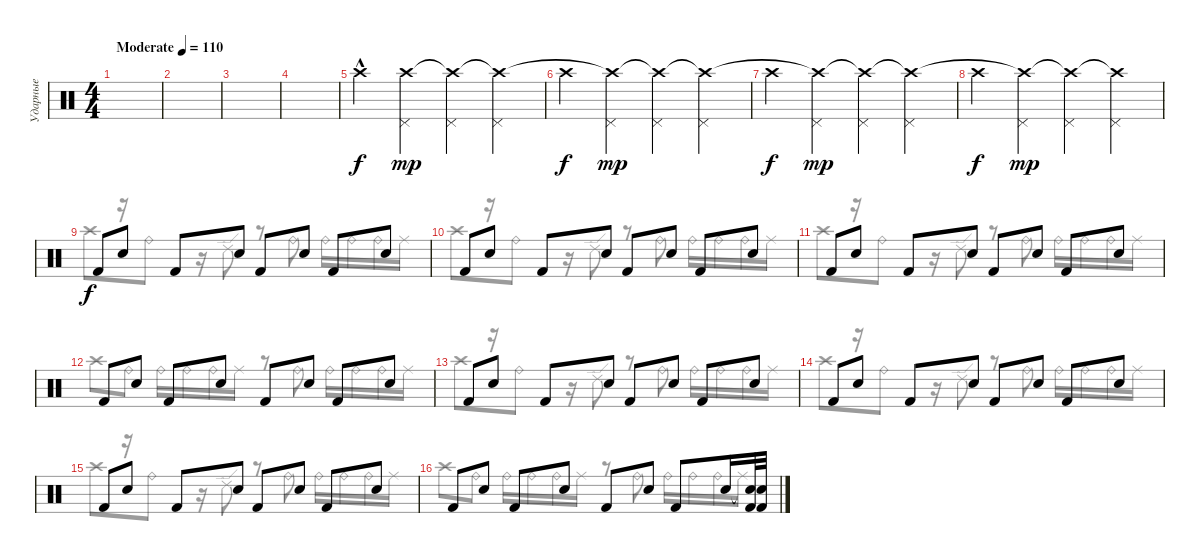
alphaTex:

\track ("Ударные" "Ударные") {instrument percussion}
\staff {score}
\articulation defaults
\voice
\ts (4 4)
\tempo (110 "Moderate")
\clef neutral
\ks c
|
|
|
|
"Crash high (hit)"{hac}.4 ("Pedal Hi-Hat (hit)" "Crash high (hit)").4{dy mp} ("Pedal Hi-Hat (hit)" "Crash high (hit)"{t}).4 ("Pedal Hi-Hat (hit)" "Crash high (hit)"{t}).4 |
"Crash high (hit)".4{dy f} ("Pedal Hi-Hat (hit)" "Crash high (hit)"{t}).4{dy mp} ("Pedal Hi-Hat (hit)" "Crash high (hit)"{t}).4 ("Pedal Hi-Hat (hit)" "Crash high (hit)"{t}).4 |
"Crash high (hit)".4{dy f} ("Pedal Hi-Hat (hit)" "Crash high (hit)"{t}).4{dy mp} ("Pedal Hi-Hat (hit)" "Crash high (hit)"{t}).4 ("Pedal Hi-Hat (hit)" "Crash high (hit)"{t}).4 |
"Crash high (hit)".4{dy f} ("Pedal Hi-Hat (hit)" "Crash high (hit)"{t}).4{dy mp} ("Pedal Hi-Hat (hit)" "Crash high (hit)"{t}).4 ("Pedal Hi-Hat (hit)" "Crash high (hit)"{t}).4 |
"Kick (hit) 2".8{dy f} "Snare (hit) 2".8 "Kick (hit) 2".8 "Snare (hit) 2".8 "Kick (hit) 2".8 "Snare (hit) 2".8 "Kick (hit) 2".8 "Snare (hit) 2".8 |
"Kick (hit) 2".8 "Snare (hit) 2".8 "Kick (hit) 2".8 "Snare (hit) 2".8 "Kick (hit) 2".8 "Snare (hit) 2".8 "Kick (hit) 2".8 "Snare (hit) 2".8 |
"Kick (hit) 2".8 "Snare (hit) 2".8 "Kick (hit) 2".8 "Snare (hit) 2".8 "Kick (hit) 2".8 "Snare (hit) 2".8 "Kick (hit) 2".8 "Snare (hit) 2".8 |
"Kick (hit) 2".8 "Snare (hit) 2".8 "Kick (hit) 2".8 "Snare (hit) 2".8 "Kick (hit) 2".8 "Snare (hit) 2".8 "Kick (hit) 2".8 "Snare (hit) 2".8 |
"Kick (hit) 2".8 "Snare (hit) 2".8 "Kick (hit) 2".8 "Snare (hit) 2".8 "Kick (hit) 2".8 "Snare (hit) 2".8 "Kick (hit) 2".8 "Snare (hit) 2".8 |
"Kick (hit) 2".8 "Snare (hit) 2".8 "Kick (hit) 2".8 "Snare (hit) 2".8 "Kick (hit) 2".8 "Snare (hit) 2".8 "Kick (hit) 2".8 "Snare (hit) 2".8 |
"Kick (hit) 2".8 "Snare (hit) 2".8 "Kick (hit) 2".8 "Snare (hit) 2".8 "Kick (hit) 2".8 "Snare (hit) 2".8 "Kick (hit) 2".8 "Snare (hit) 2".8 |
"Kick (hit) 2".8 "Snare (hit) 2".8 "Kick (hit) 2".8 "Snare (hit) 2".8 "Kick (hit) 2".8 "Snare (hit) 2".8 "Kick (hit) 2".8 "Snare (hit) 2".16 ("Snare (hit) 2"{t} "Kick (hit) 2").32 ("Snare (hit) 2"{t} "Kick (hit) 2").32
\voice
\clef neutral
\ottava regular
\simile none
\ks c
|
|
|
|
|
|
|
|
"Crash high (hit)".8 r.16 "Ride (bell)".8 r.16 "Ride (edge) 2".8 r.8 "Ride (bell)".8 "Ride (bell)".16 "Ride (bell)".16 "Ride (bell)".16 "Ride (middle)".16 |
"Crash high (hit)".8 r.16 "Ride (bell)".8 r.16 "Ride (edge) 2".8 r.8 "Ride (bell)".8 "Ride (bell)".16 "Ride (bell)".16 "Ride (bell)".16 "Ride (middle)".16 |
"Crash high (hit)".8 r.16 "Ride (bell)".8 r.16 "Ride (edge) 2".8 r.8 "Ride (bell)".8 "Ride (bell)".16 "Ride (bell)".16 "Ride (bell)".16 "Ride (middle)".16 |
"Crash high (hit)".8 "Ride (bell)".8 "Ride (bell)".16 "Ride (bell)".16 "Ride (bell)".16 "Ride (middle)".16 r.8 "Ride (bell)".8 "Ride (bell)".16 "Ride (bell)".16 "Ride (bell)".16 "Ride (middle)".16 |
"Crash high (hit)".8 r.16 "Ride (bell)".8 r.16 "Ride (edge) 2".8 r.8 "Ride (bell)".8 "Ride (bell)".16 "Ride (bell)".16 "Ride (bell)".16 "Ride (middle)".16 |
"Crash high (hit)".8 r.16 "Ride (bell)".8 r.16 "Ride (edge) 2".8 r.8 "Ride (bell)".8 "Ride (bell)".16 "Ride (bell)".16 "Ride (bell)".16 "Ride (middle)".16 |
"Crash high (hit)".8 r.16 "Ride (bell)".8 r.16 "Ride (edge) 2".8 r.8 "Ride (bell)".8 "Ride (bell)".16 "Ride (bell)".16 "Ride (bell)".16 "Ride (middle)".16 |
"Crash high (hit)".8 "Ride (bell)".8 "Ride (bell)".16 "Ride (bell)".16 "Ride (bell)".16 "Ride (middle)".16 r.8 "Ride (bell)".8 "Ride (bell)".16 "Ride (bell)".16 "Ride (bell)".16 "Ride (middle)".16
